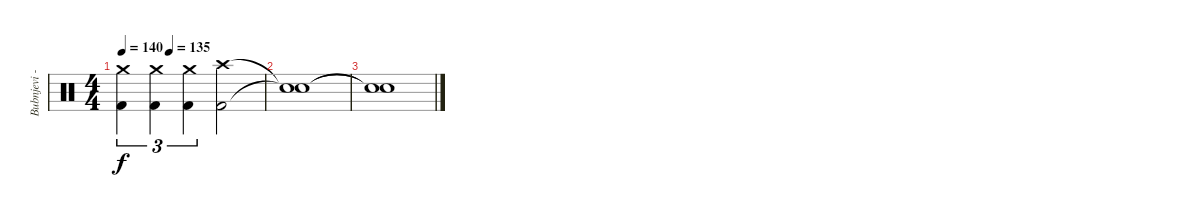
\track ("Bubnjevi - Vladan Cvetkovic" "Bubnjevi -") {instrument percussion}
\staff {score}
\articulation defaults
\ts (4 4)
\tempo 140
\tempo (135 0.3333333333333333)
\clef neutral
\ks c
("Crash medium (hit)" "Kick (hit) 2").4{tu (3 2) dy f} ("Crash medium (hit)" "Kick (hit) 2").4{tu (3 2)} ("Crash medium (hit)" "Kick (hit) 2").4{tu (3 2)} ("Crash high (hit)" "Kick (hit) 2").2 |
("Snare (hit)"{t} "Snare (hit)"{t}).1 |
("Snare (hit)"{t} "Snare (hit)"{t}).1
